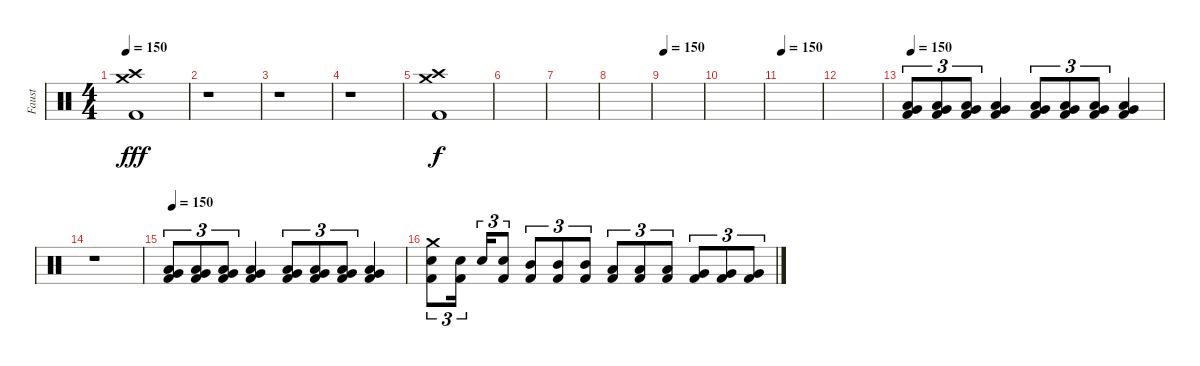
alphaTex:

\track ("Faust" "Faust") {instrument percussion}
\staff {score}
\articulation defaults
\ts (4 4)
\tempo 150
\clef neutral
\ks c
("Crash medium (hit)" "Crash high (hit)" "Kick (hit) 2").1{dy fff} |
r.1 |
r.1 |
r.1 |
("Crash medium (hit)" "Crash high (hit)" "Kick (hit) 2").1{dy f} |
|
|
|
\tempo 150
|
|
\tempo 150
|
|
\tempo 150
("Very Low Tom (hit)" "Low Floor Tom (hit)" "Kick (hit) 2").8{tu (3 2)} ("Very Low Tom (hit)" "Low Floor Tom (hit)" "Kick (hit) 2").8{tu (3 2)} ("Very Low Tom (hit)" "Low Floor Tom (hit)" "Kick (hit) 2").8{tu (3 2)} ("Very Low Tom (hit)" "Low Floor Tom (hit)" "Kick (hit) 2").4 ("Very Low Tom (hit)" "Low Floor Tom (hit)" "Kick (hit) 2").8{tu (3 2)} ("Very Low Tom (hit)" "Low Floor Tom (hit)" "Kick (hit) 2").8{tu (3 2)} ("Very Low Tom (hit)" "Low Floor Tom (hit)" "Kick (hit) 2").8{tu (3 2)} ("Very Low Tom (hit)" "Low Floor Tom (hit)" "Kick (hit) 2").4 |
r.1 |
\tempo 150
("Very Low Tom (hit)" "Low Floor Tom (hit)" "Kick (hit) 2").8{tu (3 2)} ("Very Low Tom (hit)" "Low Floor Tom (hit)" "Kick (hit) 2").8{tu (3 2)} ("Very Low Tom (hit)" "Low Floor Tom (hit)" "Kick (hit) 2").8{tu (3 2)} ("Very Low Tom (hit)" "Low Floor Tom (hit)" "Kick (hit) 2").4 ("Very Low Tom (hit)" "Low Floor Tom (hit)" "Kick (hit) 2").8{tu (3 2)} ("Very Low Tom (hit)" "Low Floor Tom (hit)" "Kick (hit) 2").8{tu (3 2)} ("Very Low Tom (hit)" "Low Floor Tom (hit)" "Kick (hit) 2").8{tu (3 2)} ("Very Low Tom (hit)" "Low Floor Tom (hit)" "Kick (hit) 2").4 |
("Crash medium (hit)" "Electric Snare (hit)" "Kick (hit) 2").8{tu (3 2)} ("Electric Snare (hit)" "Kick (hit) 2").16{tu (3 2)} "Electric Snare (hit)".16{tu (3 2)} ("Electric Snare (hit)" "Kick (hit) 2").8{tu (3 2)} ("Mid Tom (hit)" "Kick (hit) 2").8{tu (3 2)} ("Mid Tom (hit)" "Kick (hit) 2").8{tu (3 2)} ("Mid Tom (hit)" "Kick (hit) 2").8{tu (3 2)} ("Low Tom (hit)" "Kick (hit) 2").8{tu (3 2)} ("Low Tom (hit)" "Kick (hit) 2").8{tu (3 2)} ("Low Tom (hit)" "Kick (hit) 2").8{tu (3 2)} ("Very Low Tom (hit)" "Kick (hit) 2").8{tu (3 2)} ("Very Low Tom (hit)" "Kick (hit) 2").8{tu (3 2)} ("Very Low Tom (hit)" "Kick (hit) 2").8{tu (3 2)}
